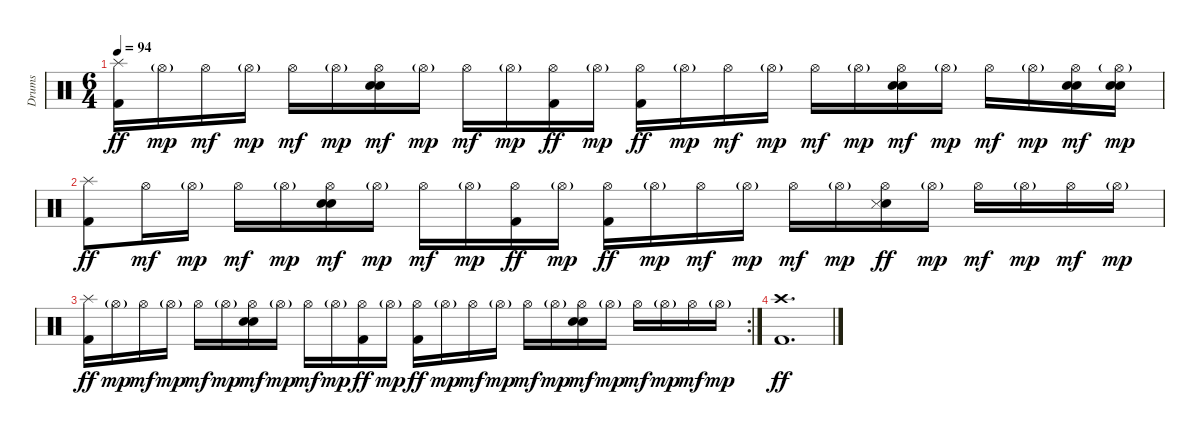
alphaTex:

\track ("Drums" "Drums") {instrument percussion}
\staff {score}
\articulation defaults
\ts (6 4)
\tempo 94
\clef neutral
\ks c
("Splash (hit)" "Kick (hit) 2").16{dy ff} "Hi-Hat (open)"{g}.16{dy mp} "Hi-Hat (open)".16{dy mf} "Hi-Hat (open)"{g}.16{dy mp} "Hi-Hat (open)".16{dy mf} "Hi-Hat (open)"{g}.16{dy mp} ("Hi-Hat (open)" "Electric Snare (hit)" "Metronome (bell)").16{dy mf} "Hi-Hat (open)"{g}.16{dy mp} "Hi-Hat (open)".16{dy mf} "Hi-Hat (open)"{g}.16{dy mp} ("Hi-Hat (open)" "Kick (hit) 2").16{dy ff} "Hi-Hat (open)"{g}.16{dy mp} ("Hi-Hat (open)" "Kick (hit) 2").16{dy ff} "Hi-Hat (open)"{g}.16{dy mp} "Hi-Hat (open)".16{dy mf} "Hi-Hat (open)"{g}.16{dy mp} "Hi-Hat (open)".16{dy mf} "Hi-Hat (open)"{g}.16{dy mp} ("Hi-Hat (open)" "Electric Snare (hit)" "Metronome (bell)").16{dy mf} "Hi-Hat (open)"{g}.16{dy mp} "Hi-Hat (open)".16{dy mf} "Hi-Hat (open)"{g}.16{dy mp} ("Hi-Hat (open)" "Electric Snare (hit)" "Metronome (bell)").16{dy mf} ("Hi-Hat (open)"{g} "Electric Snare (hit)" "Metronome (bell)").16{dy mp} |
("Splash (hit)" "Kick (hit) 2").8{dy ff} "Hi-Hat (open)".16{dy mf} "Hi-Hat (open)"{g}.16{dy mp} "Hi-Hat (open)".16{dy mf} "Hi-Hat (open)"{g}.16{dy mp} ("Hi-Hat (open)" "Electric Snare (hit)" "Metronome (bell)").16{dy mf} "Hi-Hat (open)"{g}.16{dy mp} "Hi-Hat (open)".16{dy mf} "Hi-Hat (open)"{g}.16{dy mp} ("Hi-Hat (open)" "Kick (hit) 2").16{dy ff} "Hi-Hat (open)"{g}.16{dy mp} ("Hi-Hat (open)" "Kick (hit) 2").16{dy ff} "Hi-Hat (open)"{g}.16{dy mp} "Hi-Hat (open)".16{dy mf} "Hi-Hat (open)"{g}.16{dy mp} "Hi-Hat (open)".16{dy mf} "Hi-Hat (open)"{g}.16{dy mp} ("Hi-Hat (open)" "Electric Snare (hit)" "Metronome (hit)").16{dy ff} "Hi-Hat (open)"{g}.16{dy mp} "Hi-Hat (open)".16{dy mf} "Hi-Hat (open)"{g}.16{dy mp} "Hi-Hat (open)".16{dy mf} "Hi-Hat (open)"{g}.16{dy mp} |
\rc 2
("Splash (hit)" "Kick (hit) 2").16{dy ff} "Hi-Hat (open)"{g}.16{dy mp} "Hi-Hat (open)".16{dy mf} "Hi-Hat (open)"{g}.16{dy mp} "Hi-Hat (open)".16{dy mf} "Hi-Hat (open)"{g}.16{dy mp} ("Hi-Hat (open)" "Electric Snare (hit)" "Metronome (bell)").16{dy mf} "Hi-Hat (open)"{g}.16{dy mp} "Hi-Hat (open)".16{dy mf} "Hi-Hat (open)"{g}.16{dy mp} ("Hi-Hat (open)" "Kick (hit) 2").16{dy ff} "Hi-Hat (open)"{g}.16{dy mp} ("Hi-Hat (open)" "Kick (hit) 2").16{dy ff} "Hi-Hat (open)"{g}.16{dy mp} "Hi-Hat (open)".16{dy mf} "Hi-Hat (open)"{g}.16{dy mp} "Hi-Hat (open)".16{dy mf} "Hi-Hat (open)"{g}.16{dy mp} ("Hi-Hat (open)" "Electric Snare (hit)" "Metronome (bell)").16{dy mf} "Hi-Hat (open)"{g}.16{dy mp} "Hi-Hat (open)".16{dy mf} "Hi-Hat (open)"{g}.16{dy mp} "Hi-Hat (open)".16{dy mf} "Hi-Hat (open)"{g}.16{dy mp} |
("Crash high (hit)" "Kick (hit) 2").1{d dy ff}
